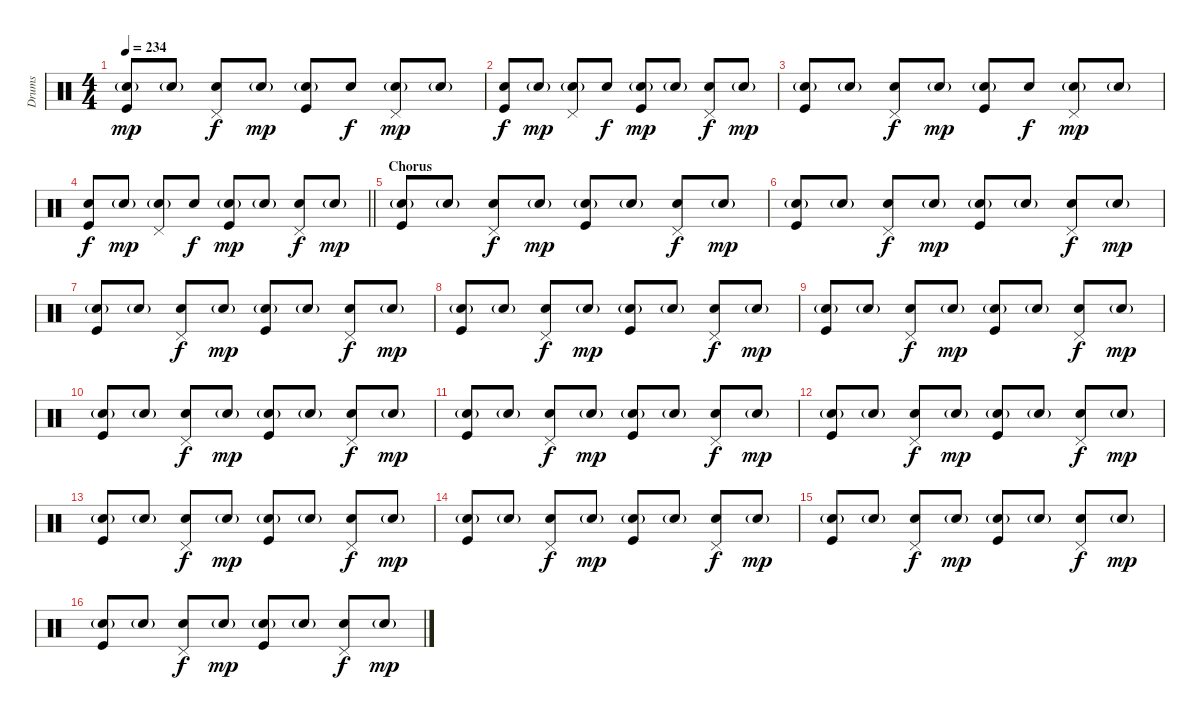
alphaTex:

\track ("Drums" "Drums") {instrument percussion}
\staff {score}
\articulation defaults
\ts (4 4)
\tempo 234
\clef neutral
\ks c
("Snare (hit) 2"{g} "Kick (hit)").8{dy mp} "Snare (hit) 2"{g}.8 ("Snare (hit) 2" "Pedal Hi-Hat (hit)").8{dy f} "Snare (hit) 2"{g}.8{dy mp} ("Snare (hit) 2"{g} "Kick (hit)").8 "Snare (hit) 2".8{dy f} ("Snare (hit) 2"{g} "Pedal Hi-Hat (hit)").8{dy mp} "Snare (hit) 2"{g}.8 |
("Snare (hit) 2" "Kick (hit)").8{dy f} "Snare (hit) 2"{g}.8{dy mp} ("Snare (hit) 2"{g} "Pedal Hi-Hat (hit)").8 "Snare (hit) 2".8{dy f} ("Snare (hit) 2"{g} "Kick (hit)").8{dy mp} "Snare (hit) 2"{g}.8 ("Snare (hit) 2" "Pedal Hi-Hat (hit)").8{dy f} "Snare (hit) 2"{g}.8{dy mp} |
("Snare (hit) 2"{g} "Kick (hit)").8 "Snare (hit) 2"{g}.8 ("Snare (hit) 2" "Pedal Hi-Hat (hit)").8{dy f} "Snare (hit) 2"{g}.8{dy mp} ("Snare (hit) 2"{g} "Kick (hit)").8 "Snare (hit) 2".8{dy f} ("Snare (hit) 2"{g} "Pedal Hi-Hat (hit)").8{dy mp} "Snare (hit) 2"{g}.8 |
\barLineRight lightlight
("Snare (hit) 2" "Kick (hit)").8{dy f} "Snare (hit) 2"{g}.8{dy mp} ("Snare (hit) 2"{g} "Pedal Hi-Hat (hit)").8 "Snare (hit) 2".8{dy f} ("Snare (hit) 2"{g} "Kick (hit)").8{dy mp} "Snare (hit) 2"{g}.8 ("Snare (hit) 2" "Pedal Hi-Hat (hit)").8{dy f} "Snare (hit) 2"{g}.8{dy mp} |
\section ("" "Chorus")
("Snare (hit) 2"{g} "Kick (hit)").8 "Snare (hit) 2"{g}.8 ("Snare (hit) 2" "Pedal Hi-Hat (hit)").8{dy f} "Snare (hit) 2"{g}.8{dy mp} ("Snare (hit) 2"{g} "Kick (hit)").8 "Snare (hit) 2"{g}.8 ("Snare (hit) 2" "Pedal Hi-Hat (hit)").8{dy f} "Snare (hit) 2"{g}.8{dy mp} |
("Snare (hit) 2"{g} "Kick (hit)").8 "Snare (hit) 2"{g}.8 ("Snare (hit) 2" "Pedal Hi-Hat (hit)").8{dy f} "Snare (hit) 2"{g}.8{dy mp} ("Snare (hit) 2"{g} "Kick (hit)").8 "Snare (hit) 2"{g}.8 ("Snare (hit) 2" "Pedal Hi-Hat (hit)").8{dy f} "Snare (hit) 2"{g}.8{dy mp} |
("Snare (hit) 2"{g} "Kick (hit)").8 "Snare (hit) 2"{g}.8 ("Snare (hit) 2" "Pedal Hi-Hat (hit)").8{dy f} "Snare (hit) 2"{g}.8{dy mp} ("Snare (hit) 2"{g} "Kick (hit)").8 "Snare (hit) 2"{g}.8 ("Snare (hit) 2" "Pedal Hi-Hat (hit)").8{dy f} "Snare (hit) 2"{g}.8{dy mp} |
("Snare (hit) 2"{g} "Kick (hit)").8 "Snare (hit) 2"{g}.8 ("Snare (hit) 2" "Pedal Hi-Hat (hit)").8{dy f} "Snare (hit) 2"{g}.8{dy mp} ("Snare (hit) 2"{g} "Kick (hit)").8 "Snare (hit) 2"{g}.8 ("Snare (hit) 2" "Pedal Hi-Hat (hit)").8{dy f} "Snare (hit) 2"{g}.8{dy mp} |
("Snare (hit) 2"{g} "Kick (hit)").8 "Snare (hit) 2"{g}.8 ("Snare (hit) 2" "Pedal Hi-Hat (hit)").8{dy f} "Snare (hit) 2"{g}.8{dy mp} ("Snare (hit) 2"{g} "Kick (hit)").8 "Snare (hit) 2"{g}.8 ("Snare (hit) 2" "Pedal Hi-Hat (hit)").8{dy f} "Snare (hit) 2"{g}.8{dy mp} |
("Snare (hit) 2"{g} "Kick (hit)").8 "Snare (hit) 2"{g}.8 ("Snare (hit) 2" "Pedal Hi-Hat (hit)").8{dy f} "Snare (hit) 2"{g}.8{dy mp} ("Snare (hit) 2"{g} "Kick (hit)").8 "Snare (hit) 2"{g}.8 ("Snare (hit) 2" "Pedal Hi-Hat (hit)").8{dy f} "Snare (hit) 2"{g}.8{dy mp} |
("Snare (hit) 2"{g} "Kick (hit)").8 "Snare (hit) 2"{g}.8 ("Snare (hit) 2" "Pedal Hi-Hat (hit)").8{dy f} "Snare (hit) 2"{g}.8{dy mp} ("Snare (hit) 2"{g} "Kick (hit)").8 "Snare (hit) 2"{g}.8 ("Snare (hit) 2" "Pedal Hi-Hat (hit)").8{dy f} "Snare (hit) 2"{g}.8{dy mp} |
("Snare (hit) 2"{g} "Kick (hit)").8 "Snare (hit) 2"{g}.8 ("Snare (hit) 2" "Pedal Hi-Hat (hit)").8{dy f} "Snare (hit) 2"{g}.8{dy mp} ("Snare (hit) 2"{g} "Kick (hit)").8 "Snare (hit) 2"{g}.8 ("Snare (hit) 2" "Pedal Hi-Hat (hit)").8{dy f} "Snare (hit) 2"{g}.8{dy mp} |
("Snare (hit) 2"{g} "Kick (hit)").8 "Snare (hit) 2"{g}.8 ("Snare (hit) 2" "Pedal Hi-Hat (hit)").8{dy f} "Snare (hit) 2"{g}.8{dy mp} ("Snare (hit) 2"{g} "Kick (hit)").8 "Snare (hit) 2"{g}.8 ("Snare (hit) 2" "Pedal Hi-Hat (hit)").8{dy f} "Snare (hit) 2"{g}.8{dy mp} |
("Snare (hit) 2"{g} "Kick (hit)").8 "Snare (hit) 2"{g}.8 ("Snare (hit) 2" "Pedal Hi-Hat (hit)").8{dy f} "Snare (hit) 2"{g}.8{dy mp} ("Snare (hit) 2"{g} "Kick (hit)").8 "Snare (hit) 2"{g}.8 ("Snare (hit) 2" "Pedal Hi-Hat (hit)").8{dy f} "Snare (hit) 2"{g}.8{dy mp} |
("Snare (hit) 2"{g} "Kick (hit)").8 "Snare (hit) 2"{g}.8 ("Snare (hit) 2" "Pedal Hi-Hat (hit)").8{dy f} "Snare (hit) 2"{g}.8{dy mp} ("Snare (hit) 2"{g} "Kick (hit)").8 "Snare (hit) 2"{g}.8 ("Snare (hit) 2" "Pedal Hi-Hat (hit)").8{dy f} "Snare (hit) 2"{g}.8{dy mp} |
("Snare (hit) 2"{g} "Kick (hit)").8 "Snare (hit) 2"{g}.8 ("Snare (hit) 2" "Pedal Hi-Hat (hit)").8{dy f} "Snare (hit) 2"{g}.8{dy mp} ("Snare (hit) 2"{g} "Kick (hit)").8 "Snare (hit) 2"{g}.8 ("Snare (hit) 2" "Pedal Hi-Hat (hit)").8{dy f} "Snare (hit) 2"{g}.8{dy mp}
